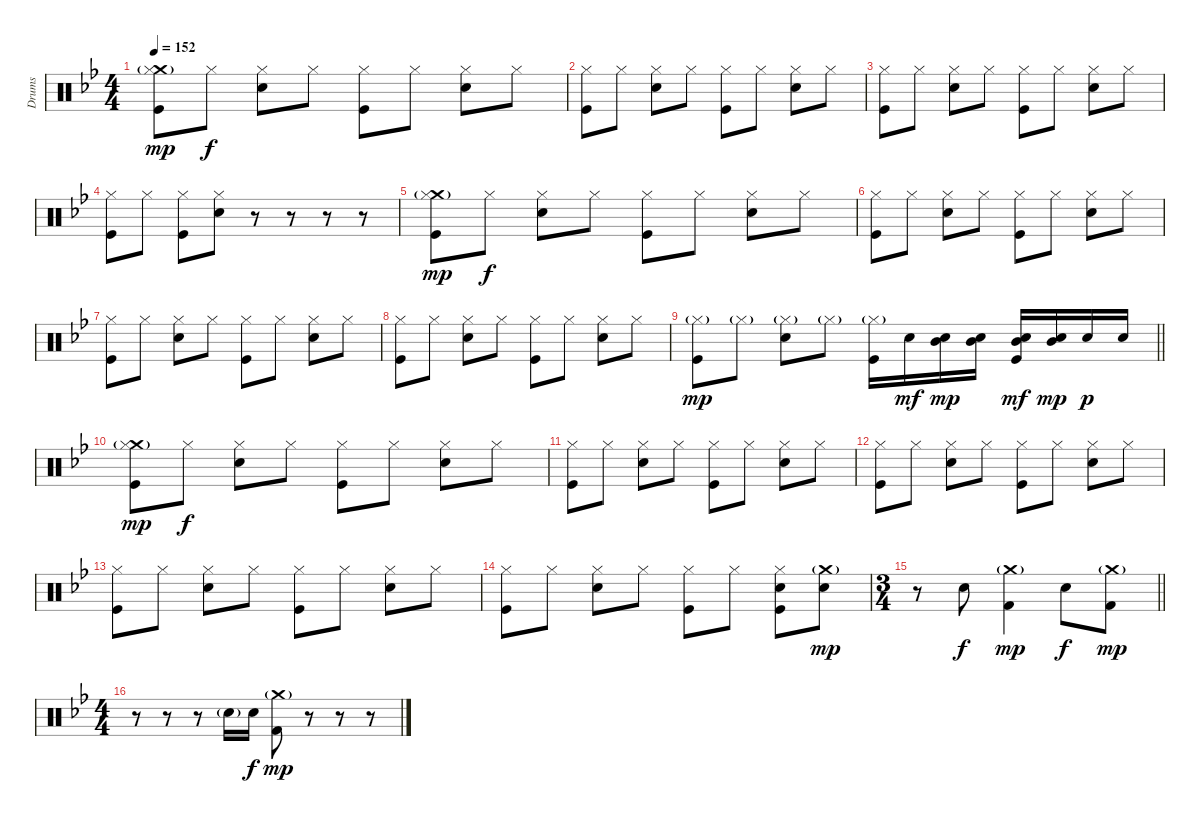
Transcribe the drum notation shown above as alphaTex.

\track ("Drums" "Drums") {instrument percussion}
\staff {score}
\articulation defaults
\ts (4 4)
\tempo 152
\clef neutral
\ks bb
("Crash medium (hit)"{g} "Hi-Hat (closed)" "Kick (hit)").8{dy mp} "Hi-Hat (closed)".8{dy f} ("Hi-Hat (closed)" "Electric Snare (hit)").8 "Hi-Hat (closed)".8 ("Hi-Hat (closed)" "Kick (hit)").8 "Hi-Hat (closed)".8 ("Hi-Hat (closed)" "Electric Snare (hit)").8 "Hi-Hat (closed)".8 |
("Hi-Hat (closed)" "Kick (hit)").8 "Hi-Hat (closed)".8 ("Hi-Hat (closed)" "Electric Snare (hit)").8 "Hi-Hat (closed)".8 ("Hi-Hat (closed)" "Kick (hit)").8 "Hi-Hat (closed)".8 ("Hi-Hat (closed)" "Electric Snare (hit)").8 "Hi-Hat (closed)".8 |
("Hi-Hat (closed)" "Kick (hit)").8 "Hi-Hat (closed)".8 ("Hi-Hat (closed)" "Electric Snare (hit)").8 "Hi-Hat (closed)".8 ("Hi-Hat (closed)" "Kick (hit)").8 "Hi-Hat (closed)".8 ("Hi-Hat (closed)" "Electric Snare (hit)").8 "Hi-Hat (closed)".8 |
("Hi-Hat (closed)" "Kick (hit)").8 "Hi-Hat (closed)".8 ("Hi-Hat (closed)" "Kick (hit)").8 ("Hi-Hat (closed)" "Electric Snare (hit)").8 r.8 r.8 r.8 r.8 |
("Crash medium (hit)"{g} "Hi-Hat (closed)" "Kick (hit)").8{dy mp} "Hi-Hat (closed)".8{dy f} ("Hi-Hat (closed)" "Electric Snare (hit)").8 "Hi-Hat (closed)".8 ("Hi-Hat (closed)" "Kick (hit)").8 "Hi-Hat (closed)".8 ("Hi-Hat (closed)" "Electric Snare (hit)").8 "Hi-Hat (closed)".8 |
("Hi-Hat (closed)" "Kick (hit)").8 "Hi-Hat (closed)".8 ("Hi-Hat (closed)" "Electric Snare (hit)").8 "Hi-Hat (closed)".8 ("Hi-Hat (closed)" "Kick (hit)").8 "Hi-Hat (closed)".8 ("Hi-Hat (closed)" "Electric Snare (hit)").8 "Hi-Hat (closed)".8 |
("Hi-Hat (closed)" "Kick (hit)").8 "Hi-Hat (closed)".8 ("Hi-Hat (closed)" "Electric Snare (hit)").8 "Hi-Hat (closed)".8 ("Hi-Hat (closed)" "Kick (hit)").8 "Hi-Hat (closed)".8 ("Hi-Hat (closed)" "Electric Snare (hit)").8 "Hi-Hat (closed)".8 |
("Hi-Hat (closed)" "Kick (hit)").8 "Hi-Hat (closed)".8 ("Hi-Hat (closed)" "Electric Snare (hit)").8 "Hi-Hat (closed)".8 ("Hi-Hat (closed)" "Kick (hit)").8 "Hi-Hat (closed)".8 ("Hi-Hat (closed)" "Electric Snare (hit)").8 "Hi-Hat (closed)".8 |
\barLineRight lightlight
("Hi-Hat (closed)"{g} "Kick (hit)").8{dy mp} "Hi-Hat (closed)"{g}.8 ("Hi-Hat (closed)"{g} "Electric Snare (hit)").8 "Hi-Hat (closed)"{g}.8 ("Hi-Hat (closed)"{g} "Kick (hit)").16 "Electric Snare (hit)".16{dy mf} ("Electric Snare (hit)" "Mid Tom (hit)").16{dy mp} ("Electric Snare (hit)" "Mid Tom (hit)").16 ("Electric Snare (hit)" "Mid Tom (hit)" "Kick (hit)").16{dy mf} ("Electric Snare (hit)" "Mid Tom (hit)").16{dy mp} "Electric Snare (hit)".16{dy p} "Electric Snare (hit)".16 |
("Crash medium (hit)"{g} "Hi-Hat (closed)" "Kick (hit)").8{dy mp} "Hi-Hat (closed)".8{dy f} ("Hi-Hat (closed)" "Electric Snare (hit)").8 "Hi-Hat (closed)".8 ("Hi-Hat (closed)" "Kick (hit)").8 "Hi-Hat (closed)".8 ("Hi-Hat (closed)" "Electric Snare (hit)").8 "Hi-Hat (closed)".8 |
("Hi-Hat (closed)" "Kick (hit)").8 "Hi-Hat (closed)".8 ("Hi-Hat (closed)" "Electric Snare (hit)").8 "Hi-Hat (closed)".8 ("Hi-Hat (closed)" "Kick (hit)").8 "Hi-Hat (closed)".8 ("Hi-Hat (closed)" "Electric Snare (hit)").8 "Hi-Hat (closed)".8 |
("Hi-Hat (closed)" "Kick (hit)").8 "Hi-Hat (closed)".8 ("Hi-Hat (closed)" "Electric Snare (hit)").8 "Hi-Hat (closed)".8 ("Hi-Hat (closed)" "Kick (hit)").8 "Hi-Hat (closed)".8 ("Hi-Hat (closed)" "Electric Snare (hit)").8 "Hi-Hat (closed)".8 |
("Hi-Hat (closed)" "Kick (hit)").8 "Hi-Hat (closed)".8 ("Hi-Hat (closed)" "Electric Snare (hit)").8 "Hi-Hat (closed)".8 ("Hi-Hat (closed)" "Kick (hit)").8 "Hi-Hat (closed)".8 ("Hi-Hat (closed)" "Electric Snare (hit)").8 "Hi-Hat (closed)".8 |
("Hi-Hat (closed)" "Kick (hit)").8 "Hi-Hat (closed)".8 ("Hi-Hat (closed)" "Electric Snare (hit)").8 "Hi-Hat (closed)".8 ("Hi-Hat (closed)" "Kick (hit)").8 "Hi-Hat (closed)".8 ("Hi-Hat (closed)" "Kick (hit)" "Electric Snare (hit)").8 ("Crash medium (hit)"{g} "Electric Snare (hit)").8{dy mp} |
\ts (3 4)
\barLineRight lightlight
r.8 "Electric Snare (hit)".8{dy f} ("Crash medium (hit)"{g} "Kick (hit) 2").4{dy mp} "Electric Snare (hit)".8{dy f} ("Crash medium (hit)"{g} "Kick (hit) 2").8{dy mp} |
\ts (4 4)
r.8 r.8 r.8 "Electric Snare (hit)"{g}.16 "Electric Snare (hit)".16{dy f} ("Crash medium (hit)"{g} "Kick (hit) 2").8{dy mp} r.8 r.8 r.8
